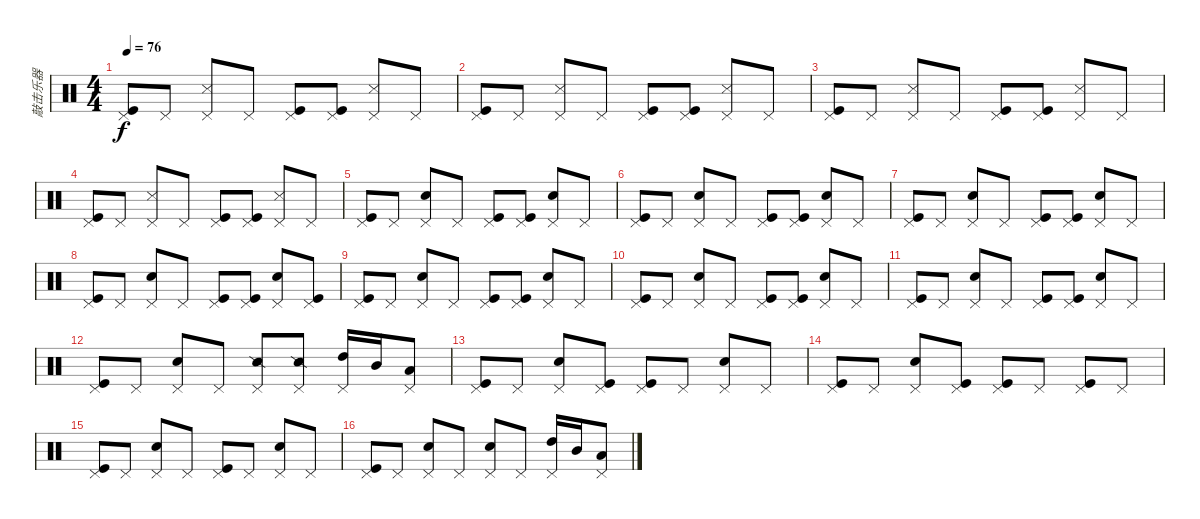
\track ("敲击乐器" "敲击乐器") {instrument percussion}
\staff {score}
\articulation defaults
\ts (4 4)
\tempo 76
\clef neutral
\ks c
("Kick (hit)" "Pedal Hi-Hat (hit)").8{dy f} "Pedal Hi-Hat (hit)".8 ("Snare (side stick) 3" "Pedal Hi-Hat (hit)").8 "Pedal Hi-Hat (hit)".8 ("Kick (hit)" "Pedal Hi-Hat (hit)").8 ("Kick (hit)" "Pedal Hi-Hat (hit)").8 ("Snare (side stick) 3" "Pedal Hi-Hat (hit)").8 "Pedal Hi-Hat (hit)".8 |
("Kick (hit)" "Pedal Hi-Hat (hit)").8 "Pedal Hi-Hat (hit)".8 ("Snare (side stick) 3" "Pedal Hi-Hat (hit)").8 "Pedal Hi-Hat (hit)".8 ("Kick (hit)" "Pedal Hi-Hat (hit)").8 ("Kick (hit)" "Pedal Hi-Hat (hit)").8 ("Snare (side stick) 3" "Pedal Hi-Hat (hit)").8 "Pedal Hi-Hat (hit)".8 |
("Kick (hit)" "Pedal Hi-Hat (hit)").8 "Pedal Hi-Hat (hit)".8 ("Snare (side stick) 3" "Pedal Hi-Hat (hit)").8 "Pedal Hi-Hat (hit)".8 ("Kick (hit)" "Pedal Hi-Hat (hit)").8 ("Kick (hit)" "Pedal Hi-Hat (hit)").8 ("Snare (side stick) 3" "Pedal Hi-Hat (hit)").8 "Pedal Hi-Hat (hit)".8 |
("Kick (hit)" "Pedal Hi-Hat (hit)").8 "Pedal Hi-Hat (hit)".8 ("Snare (side stick) 3" "Pedal Hi-Hat (hit)").8 "Pedal Hi-Hat (hit)".8 ("Kick (hit)" "Pedal Hi-Hat (hit)").8 ("Kick (hit)" "Pedal Hi-Hat (hit)").8 ("Snare (side stick) 3" "Pedal Hi-Hat (hit)").8 "Pedal Hi-Hat (hit)".8 |
("Kick (hit)" "Pedal Hi-Hat (hit)").8 "Pedal Hi-Hat (hit)".8 ("Snare (hit) 2" "Pedal Hi-Hat (hit)").8 "Pedal Hi-Hat (hit)".8 ("Kick (hit)" "Pedal Hi-Hat (hit)").8 ("Kick (hit)" "Pedal Hi-Hat (hit)").8 ("Snare (hit) 2" "Pedal Hi-Hat (hit)").8 "Pedal Hi-Hat (hit)".8 |
("Kick (hit)" "Pedal Hi-Hat (hit)").8 "Pedal Hi-Hat (hit)".8 ("Snare (hit) 2" "Pedal Hi-Hat (hit)").8 "Pedal Hi-Hat (hit)".8 ("Kick (hit)" "Pedal Hi-Hat (hit)").8 ("Kick (hit)" "Pedal Hi-Hat (hit)").8 ("Snare (hit) 2" "Pedal Hi-Hat (hit)").8 "Pedal Hi-Hat (hit)".8 |
("Kick (hit)" "Pedal Hi-Hat (hit)").8 "Pedal Hi-Hat (hit)".8 ("Snare (hit) 2" "Pedal Hi-Hat (hit)").8 "Pedal Hi-Hat (hit)".8 ("Kick (hit)" "Pedal Hi-Hat (hit)").8 ("Kick (hit)" "Pedal Hi-Hat (hit)").8 ("Snare (hit) 2" "Pedal Hi-Hat (hit)").8 "Pedal Hi-Hat (hit)".8 |
("Kick (hit)" "Pedal Hi-Hat (hit)").8 "Pedal Hi-Hat (hit)".8 ("Snare (hit) 2" "Pedal Hi-Hat (hit)").8 "Pedal Hi-Hat (hit)".8 ("Kick (hit)" "Pedal Hi-Hat (hit)").8 ("Kick (hit)" "Pedal Hi-Hat (hit)").8 ("Snare (hit) 2" "Pedal Hi-Hat (hit)").8 ("Kick (hit)" "Pedal Hi-Hat (hit)").8 |
("Kick (hit)" "Pedal Hi-Hat (hit)").8 "Pedal Hi-Hat (hit)".8 ("Snare (hit) 2" "Pedal Hi-Hat (hit)").8 "Pedal Hi-Hat (hit)".8 ("Kick (hit)" "Pedal Hi-Hat (hit)").8 ("Kick (hit)" "Pedal Hi-Hat (hit)").8 ("Snare (hit) 2" "Pedal Hi-Hat (hit)").8 "Pedal Hi-Hat (hit)".8 |
("Kick (hit)" "Pedal Hi-Hat (hit)").8 "Pedal Hi-Hat (hit)".8 ("Snare (hit) 2" "Pedal Hi-Hat (hit)").8 "Pedal Hi-Hat (hit)".8 ("Kick (hit)" "Pedal Hi-Hat (hit)").8 ("Kick (hit)" "Pedal Hi-Hat (hit)").8 ("Snare (hit) 2" "Pedal Hi-Hat (hit)").8 "Pedal Hi-Hat (hit)".8 |
("Kick (hit)" "Pedal Hi-Hat (hit)").8 "Pedal Hi-Hat (hit)".8 ("Snare (hit) 2" "Pedal Hi-Hat (hit)").8 "Pedal Hi-Hat (hit)".8 ("Kick (hit)" "Pedal Hi-Hat (hit)").8 ("Kick (hit)" "Pedal Hi-Hat (hit)").8 ("Snare (hit) 2" "Pedal Hi-Hat (hit)").8 "Pedal Hi-Hat (hit)".8 |
("Kick (hit)" "Pedal Hi-Hat (hit)").8 "Pedal Hi-Hat (hit)".8 ("Snare (hit) 2" "Pedal Hi-Hat (hit)").8 "Pedal Hi-Hat (hit)".8 ("Snare (side stick) 2" "Pedal Hi-Hat (hit)").8 ("Snare (side stick) 2" "Pedal Hi-Hat (hit)").8 ("High Tom (hit)" "Pedal Hi-Hat (hit)").16 "Mid Tom (hit)".16 ("Low Tom (hit)" "Pedal Hi-Hat (hit)").8 |
("Kick (hit)" "Pedal Hi-Hat (hit)").8 "Pedal Hi-Hat (hit)".8 ("Snare (hit) 2" "Pedal Hi-Hat (hit)").8 ("Kick (hit)" "Pedal Hi-Hat (hit)").8 ("Kick (hit)" "Pedal Hi-Hat (hit)").8 "Pedal Hi-Hat (hit)".8 ("Snare (hit) 2" "Pedal Hi-Hat (hit)").8 "Pedal Hi-Hat (hit)".8 |
("Kick (hit)" "Pedal Hi-Hat (hit)").8 "Pedal Hi-Hat (hit)".8 ("Snare (hit) 2" "Pedal Hi-Hat (hit)").8 ("Kick (hit)" "Pedal Hi-Hat (hit)").8 ("Kick (hit)" "Pedal Hi-Hat (hit)").8 "Pedal Hi-Hat (hit)".8 ("Kick (hit)" "Pedal Hi-Hat (hit)").8 "Pedal Hi-Hat (hit)".8 |
("Kick (hit)" "Pedal Hi-Hat (hit)").8 "Pedal Hi-Hat (hit)".8 ("Snare (hit) 2" "Pedal Hi-Hat (hit)").8 "Pedal Hi-Hat (hit)".8 ("Kick (hit)" "Pedal Hi-Hat (hit)").8 "Pedal Hi-Hat (hit)".8 ("Snare (hit) 2" "Pedal Hi-Hat (hit)").8 "Pedal Hi-Hat (hit)".8 |
("Kick (hit)" "Pedal Hi-Hat (hit)").8 "Pedal Hi-Hat (hit)".8 ("Snare (hit) 2" "Pedal Hi-Hat (hit)").8 "Pedal Hi-Hat (hit)".8 ("Snare (hit) 2" "Pedal Hi-Hat (hit)").8 "Pedal Hi-Hat (hit)".8 ("High Tom (hit)" "Pedal Hi-Hat (hit)").16 "Mid Tom (hit)".16 ("Low Tom (hit)" "Pedal Hi-Hat (hit)").8
